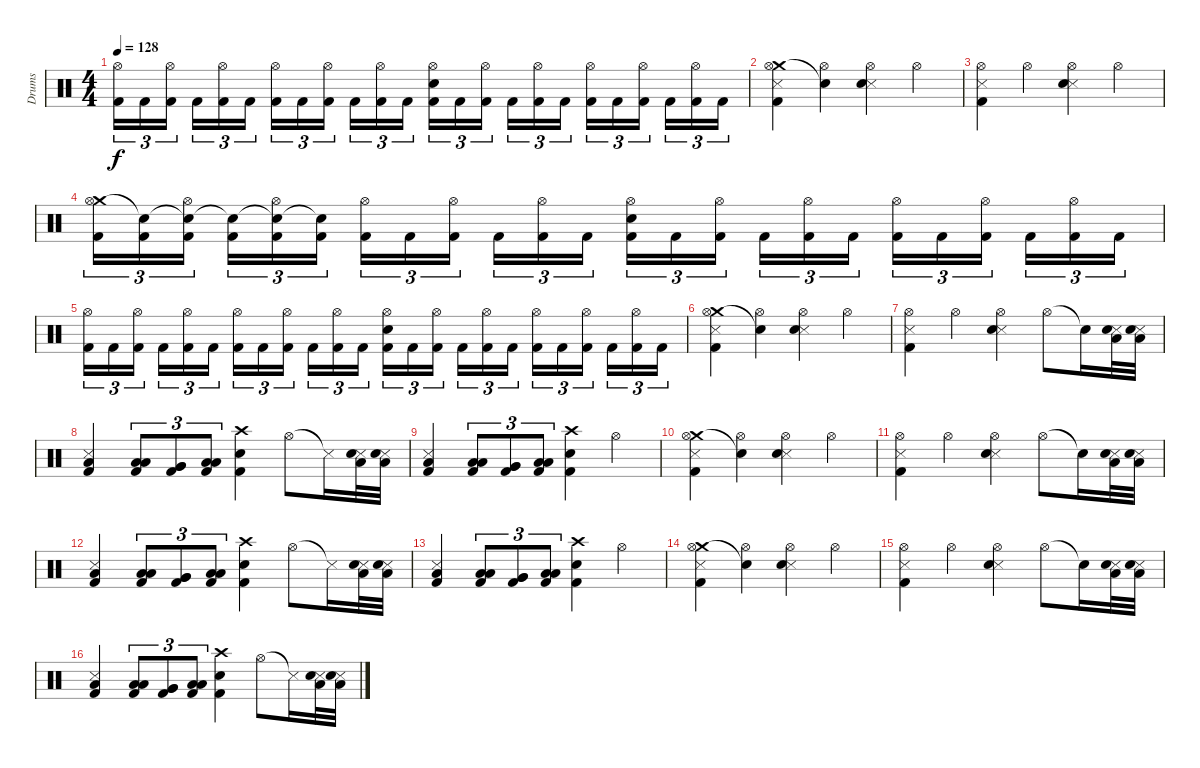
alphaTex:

\track ("Drums" "Drums") {instrument percussion}
\staff {score}
\articulation defaults
\ts (4 4)
\tempo 128
\clef neutral
\ks c
("Hi-Hat (open)" "Kick (hit) 2").16{tu (3 2) dy f} "Kick (hit) 2".16{tu (3 2)} ("Hi-Hat (open)" "Kick (hit) 2").16{tu (3 2)} "Kick (hit) 2".16{tu (3 2)} ("Hi-Hat (open)" "Kick (hit) 2").16{tu (3 2)} "Kick (hit) 2".16{tu (3 2)} ("Hi-Hat (open)" "Kick (hit) 2").16{tu (3 2)} "Kick (hit) 2".16{tu (3 2)} ("Hi-Hat (open)" "Kick (hit) 2").16{tu (3 2)} "Kick (hit) 2".16{tu (3 2)} ("Hi-Hat (open)" "Kick (hit) 2").16{tu (3 2)} "Kick (hit) 2".16{tu (3 2)} ("Hi-Hat (open)" "Electric Snare (hit)" "Kick (hit) 2").16{tu (3 2)} "Kick (hit) 2".16{tu (3 2)} ("Hi-Hat (open)" "Kick (hit) 2").16{tu (3 2)} "Kick (hit) 2".16{tu (3 2)} ("Hi-Hat (open)" "Kick (hit) 2").16{tu (3 2)} "Kick (hit) 2".16{tu (3 2)} ("Hi-Hat (open)" "Kick (hit) 2").16{tu (3 2)} "Kick (hit) 2".16{tu (3 2)} ("Hi-Hat (open)" "Kick (hit) 2").16{tu (3 2)} "Kick (hit) 2".16{tu (3 2)} ("Hi-Hat (open)" "Kick (hit) 2").16{tu (3 2)} "Kick (hit) 2".16{tu (3 2)} |
("Crash medium (hit)" "Snare (side stick) 3" "Hi-Hat (open)" "Kick (hit) 2").4 ("Snare (hit)"{t} "Hi-Hat (open)").4 ("Snare (side stick) 3" "Hi-Hat (open)" "Electric Snare (hit)").4 "Hi-Hat (open)".4 |
("Snare (side stick) 3" "Hi-Hat (open)" "Kick (hit) 2").4 "Hi-Hat (open)".4 ("Snare (side stick) 3" "Hi-Hat (open)" "Electric Snare (hit)").4 "Hi-Hat (open)".4 |
("Crash medium (hit)" "Hi-Hat (open)" "Kick (hit) 2").16{tu (3 2)} ("Snare (hit)"{t} "Kick (hit) 2").16{tu (3 2)} ("Snare (hit)"{t} "Hi-Hat (open)" "Kick (hit) 2").16{tu (3 2)} ("Snare (hit)"{t} "Kick (hit) 2").16{tu (3 2)} ("Snare (hit)"{t} "Hi-Hat (open)" "Kick (hit) 2").16{tu (3 2)} ("Snare (hit)"{t} "Kick (hit) 2").16{tu (3 2)} ("Hi-Hat (open)" "Kick (hit) 2").16{tu (3 2)} "Kick (hit) 2".16{tu (3 2)} ("Hi-Hat (open)" "Kick (hit) 2").16{tu (3 2)} "Kick (hit) 2".16{tu (3 2)} ("Hi-Hat (open)" "Kick (hit) 2").16{tu (3 2)} "Kick (hit) 2".16{tu (3 2)} ("Hi-Hat (open)" "Electric Snare (hit)" "Kick (hit) 2").16{tu (3 2)} "Kick (hit) 2".16{tu (3 2)} ("Hi-Hat (open)" "Kick (hit) 2").16{tu (3 2)} "Kick (hit) 2".16{tu (3 2)} ("Hi-Hat (open)" "Kick (hit) 2").16{tu (3 2)} "Kick (hit) 2".16{tu (3 2)} ("Hi-Hat (open)" "Kick (hit) 2").16{tu (3 2)} "Kick (hit) 2".16{tu (3 2)} ("Hi-Hat (open)" "Kick (hit) 2").16{tu (3 2)} "Kick (hit) 2".16{tu (3 2)} ("Hi-Hat (open)" "Kick (hit) 2").16{tu (3 2)} "Kick (hit) 2".16{tu (3 2)} |
("Hi-Hat (open)" "Kick (hit) 2").16{tu (3 2)} "Kick (hit) 2".16{tu (3 2)} ("Hi-Hat (open)" "Kick (hit) 2").16{tu (3 2)} "Kick (hit) 2".16{tu (3 2)} ("Hi-Hat (open)" "Kick (hit) 2").16{tu (3 2)} "Kick (hit) 2".16{tu (3 2)} ("Hi-Hat (open)" "Kick (hit) 2").16{tu (3 2)} "Kick (hit) 2".16{tu (3 2)} ("Hi-Hat (open)" "Kick (hit) 2").16{tu (3 2)} "Kick (hit) 2".16{tu (3 2)} ("Hi-Hat (open)" "Kick (hit) 2").16{tu (3 2)} "Kick (hit) 2".16{tu (3 2)} ("Hi-Hat (open)" "Electric Snare (hit)" "Kick (hit) 2").16{tu (3 2)} "Kick (hit) 2".16{tu (3 2)} ("Hi-Hat (open)" "Kick (hit) 2").16{tu (3 2)} "Kick (hit) 2".16{tu (3 2)} ("Hi-Hat (open)" "Kick (hit) 2").16{tu (3 2)} "Kick (hit) 2".16{tu (3 2)} ("Hi-Hat (open)" "Kick (hit) 2").16{tu (3 2)} "Kick (hit) 2".16{tu (3 2)} ("Hi-Hat (open)" "Kick (hit) 2").16{tu (3 2)} "Kick (hit) 2".16{tu (3 2)} ("Hi-Hat (open)" "Kick (hit) 2").16{tu (3 2)} "Kick (hit) 2".16{tu (3 2)} |
("Crash medium (hit)" "Snare (side stick) 3" "Hi-Hat (open)" "Kick (hit) 2").4 ("Snare (hit)"{t} "Hi-Hat (open)").4 ("Snare (side stick) 3" "Hi-Hat (open)" "Electric Snare (hit)").4 "Hi-Hat (open)".4 |
("Snare (side stick) 3" "Hi-Hat (open)" "Kick (hit) 2").4 "Hi-Hat (open)".4 ("Snare (side stick) 3" "Hi-Hat (open)" "Electric Snare (hit)").4 "Hi-Hat (open)".8 "Snare (hit)"{t}.16 ("Snare (side stick) 3" "Low Floor Tom (hit)" "Electric Snare (hit)").32 ("Snare (side stick) 3" "Low Floor Tom (hit)" "Electric Snare (hit)").32 |
("Snare (side stick) 3" "Low Floor Tom (hit)" "Kick (hit) 2").4 ("Low Tom (hit)" "Low Tom (hit)" "Kick (hit) 2").8{tu (3 2)} ("Very Low Tom (hit)" "Very Low Tom (hit)" "Kick (hit) 2").8{tu (3 2)} ("Low Floor Tom (hit)" "Low Floor Tom (hit)" "Kick (hit) 2").8{tu (3 2)} ("Crash high (hit)" "Electric Snare (hit)" "Kick (hit) 2").4 "Hi-Hat (open)".8 "Snare (side stick) 3"{t}.16 ("Snare (side stick) 3" "Low Floor Tom (hit)" "Electric Snare (hit)").32 ("Snare (side stick) 3" "Low Floor Tom (hit)" "Electric Snare (hit)").32 |
("Snare (side stick) 3" "Low Floor Tom (hit)" "Kick (hit) 2").4 ("Low Tom (hit)" "Low Tom (hit)" "Kick (hit) 2").8{tu (3 2)} ("Very Low Tom (hit)" "Very Low Tom (hit)" "Kick (hit) 2").8{tu (3 2)} ("Low Floor Tom (hit)" "Low Floor Tom (hit)" "Kick (hit) 2").8{tu (3 2)} ("Crash high (hit)" "Electric Snare (hit)" "Kick (hit) 2").4 "Hi-Hat (open)".4 |
("Crash medium (hit)" "Snare (side stick) 3" "Hi-Hat (open)" "Kick (hit) 2").4 ("Snare (hit)"{t} "Hi-Hat (open)").4 ("Snare (side stick) 3" "Hi-Hat (open)" "Electric Snare (hit)").4 "Hi-Hat (open)".4 |
("Snare (side stick) 3" "Hi-Hat (open)" "Kick (hit) 2").4 "Hi-Hat (open)".4 ("Snare (side stick) 3" "Hi-Hat (open)" "Electric Snare (hit)").4 "Hi-Hat (open)".8 "Snare (hit)"{t}.16 ("Snare (side stick) 3" "Low Floor Tom (hit)" "Electric Snare (hit)").32 ("Snare (side stick) 3" "Low Floor Tom (hit)" "Electric Snare (hit)").32 |
("Snare (side stick) 3" "Low Floor Tom (hit)" "Kick (hit) 2").4 ("Low Tom (hit)" "Low Tom (hit)" "Kick (hit) 2").8{tu (3 2)} ("Very Low Tom (hit)" "Very Low Tom (hit)" "Kick (hit) 2").8{tu (3 2)} ("Low Floor Tom (hit)" "Low Floor Tom (hit)" "Kick (hit) 2").8{tu (3 2)} ("Crash high (hit)" "Electric Snare (hit)" "Kick (hit) 2").4 "Hi-Hat (open)".8 "Snare (side stick) 3"{t}.16 ("Snare (side stick) 3" "Low Floor Tom (hit)" "Electric Snare (hit)").32 ("Snare (side stick) 3" "Low Floor Tom (hit)" "Electric Snare (hit)").32 |
("Snare (side stick) 3" "Low Floor Tom (hit)" "Kick (hit) 2").4 ("Low Tom (hit)" "Low Tom (hit)" "Kick (hit) 2").8{tu (3 2)} ("Very Low Tom (hit)" "Very Low Tom (hit)" "Kick (hit) 2").8{tu (3 2)} ("Low Floor Tom (hit)" "Low Floor Tom (hit)" "Kick (hit) 2").8{tu (3 2)} ("Crash high (hit)" "Electric Snare (hit)" "Kick (hit) 2").4 "Hi-Hat (open)".4 |
("Crash medium (hit)" "Snare (side stick) 3" "Hi-Hat (open)" "Kick (hit) 2").4 ("Snare (hit)"{t} "Hi-Hat (open)").4 ("Snare (side stick) 3" "Hi-Hat (open)" "Electric Snare (hit)").4 "Hi-Hat (open)".4 |
("Snare (side stick) 3" "Hi-Hat (open)" "Kick (hit) 2").4 "Hi-Hat (open)".4 ("Snare (side stick) 3" "Hi-Hat (open)" "Electric Snare (hit)").4 "Hi-Hat (open)".8 "Snare (hit)"{t}.16 ("Snare (side stick) 3" "Low Floor Tom (hit)" "Electric Snare (hit)").32 ("Snare (side stick) 3" "Low Floor Tom (hit)" "Electric Snare (hit)").32 |
("Snare (side stick) 3" "Low Floor Tom (hit)" "Kick (hit) 2").4 ("Low Tom (hit)" "Low Tom (hit)" "Kick (hit) 2").8{tu (3 2)} ("Very Low Tom (hit)" "Very Low Tom (hit)" "Kick (hit) 2").8{tu (3 2)} ("Low Floor Tom (hit)" "Low Floor Tom (hit)" "Kick (hit) 2").8{tu (3 2)} ("Crash high (hit)" "Electric Snare (hit)" "Kick (hit) 2").4 "Hi-Hat (open)".8 "Snare (side stick) 3"{t}.16 ("Snare (side stick) 3" "Low Floor Tom (hit)" "Electric Snare (hit)").32 ("Snare (side stick) 3" "Low Floor Tom (hit)" "Electric Snare (hit)").32
